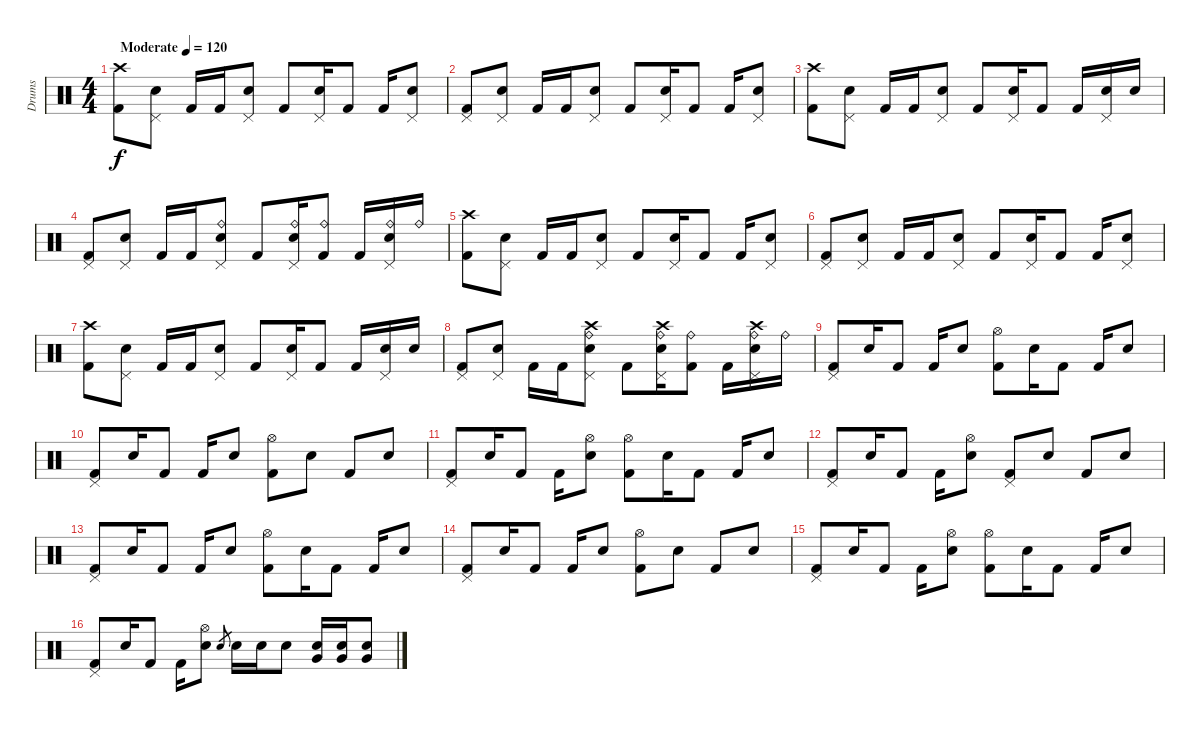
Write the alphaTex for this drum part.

\track ("Drums" "Drums") {instrument percussion}
\staff {score}
\articulation defaults
\ts (4 4)
\tempo (120 "Moderate")
\clef neutral
\ks c
("Crash high (hit)" "Kick (hit) 2").8{dy f} ("Pedal Hi-Hat (hit)" "Electric Snare (hit)").8 "Kick (hit) 2".16 "Kick (hit) 2".16 ("Pedal Hi-Hat (hit)" "Electric Snare (hit)").8 "Kick (hit) 2".8 ("Pedal Hi-Hat (hit)" "Electric Snare (hit)").16 "Kick (hit) 2".8 "Kick (hit) 2".16 ("Pedal Hi-Hat (hit)" "Electric Snare (hit)").8 |
("Pedal Hi-Hat (hit)" "Kick (hit) 2").8 ("Pedal Hi-Hat (hit)" "Electric Snare (hit)").8 "Kick (hit) 2".16 "Kick (hit) 2".16 ("Pedal Hi-Hat (hit)" "Electric Snare (hit)").8 "Kick (hit) 2".8 ("Pedal Hi-Hat (hit)" "Electric Snare (hit)").16 "Kick (hit) 2".8 "Kick (hit) 2".16 ("Pedal Hi-Hat (hit)" "Electric Snare (hit)").8 |
("Crash high (hit)" "Kick (hit) 2").8 ("Pedal Hi-Hat (hit)" "Electric Snare (hit)").8 "Kick (hit) 2".16 "Kick (hit) 2".16 ("Pedal Hi-Hat (hit)" "Electric Snare (hit)").8 "Kick (hit) 2".8 ("Pedal Hi-Hat (hit)" "Electric Snare (hit)").16 "Kick (hit) 2".8 "Kick (hit) 2".16 ("Pedal Hi-Hat (hit)" "Electric Snare (hit)").16 "Electric Snare (hit)".16 |
("Pedal Hi-Hat (hit)" "Kick (hit) 2").8 ("Pedal Hi-Hat (hit)" "Electric Snare (hit)").8 "Kick (hit) 2".16 "Kick (hit) 2".16 ("Pedal Hi-Hat (hit)" "Electric Snare (hit)" "Ride (bell)").8 "Kick (hit) 2".8 ("Pedal Hi-Hat (hit)" "Electric Snare (hit)" "Ride (bell)").16 ("Ride (bell)" "Kick (hit) 2").8 "Kick (hit) 2".16 ("Pedal Hi-Hat (hit)" "Electric Snare (hit)" "Ride (bell)").16 "Ride (bell)".16 |
("Crash high (hit)" "Kick (hit) 2").8 ("Pedal Hi-Hat (hit)" "Electric Snare (hit)").8 "Kick (hit) 2".16 "Kick (hit) 2".16 ("Pedal Hi-Hat (hit)" "Electric Snare (hit)").8 "Kick (hit) 2".8 ("Pedal Hi-Hat (hit)" "Electric Snare (hit)").16 "Kick (hit) 2".8 "Kick (hit) 2".16 ("Pedal Hi-Hat (hit)" "Electric Snare (hit)").8 |
("Pedal Hi-Hat (hit)" "Kick (hit) 2").8 ("Pedal Hi-Hat (hit)" "Electric Snare (hit)").8 "Kick (hit) 2".16 "Kick (hit) 2".16 ("Pedal Hi-Hat (hit)" "Electric Snare (hit)").8 "Kick (hit) 2".8 ("Pedal Hi-Hat (hit)" "Electric Snare (hit)").16 "Kick (hit) 2".8 "Kick (hit) 2".16 ("Pedal Hi-Hat (hit)" "Electric Snare (hit)").8 |
("Crash high (hit)" "Kick (hit) 2").8 ("Pedal Hi-Hat (hit)" "Electric Snare (hit)").8 "Kick (hit) 2".16 "Kick (hit) 2".16 ("Pedal Hi-Hat (hit)" "Electric Snare (hit)").8 "Kick (hit) 2".8 ("Pedal Hi-Hat (hit)" "Electric Snare (hit)").16 "Kick (hit) 2".8 "Kick (hit) 2".16 ("Pedal Hi-Hat (hit)" "Electric Snare (hit)").16 "Electric Snare (hit)".16 |
("Pedal Hi-Hat (hit)" "Kick (hit) 2").8 ("Pedal Hi-Hat (hit)" "Electric Snare (hit)").8 "Kick (hit) 2".16 "Kick (hit) 2".16 ("Pedal Hi-Hat (hit)" "Electric Snare (hit)" "Ride (bell)" "Crash high (hit)").8 "Kick (hit) 2".8 ("Pedal Hi-Hat (hit)" "Electric Snare (hit)" "Ride (bell)" "Crash high (hit)").16 ("Ride (bell)" "Kick (hit) 2").8 "Kick (hit) 2".16 ("Pedal Hi-Hat (hit)" "Electric Snare (hit)" "Ride (bell)" "Crash high (hit)").16 "Ride (bell)".16 |
("Pedal Hi-Hat (hit)" "Kick (hit) 2").8 "Electric Snare (hit)".16 "Kick (hit) 2".8 "Kick (hit) 2".16 "Electric Snare (hit)".8 ("Hi-Hat (open)" "Kick (hit) 2").8 "Electric Snare (hit)".16 "Kick (hit) 2".8 "Kick (hit) 2".16 "Electric Snare (hit)".8 |
("Pedal Hi-Hat (hit)" "Kick (hit) 2").8 "Electric Snare (hit)".16 "Kick (hit) 2".8 "Kick (hit) 2".16 "Electric Snare (hit)".8 ("Hi-Hat (open)" "Kick (hit) 2").8 "Electric Snare (hit)".8 "Kick (hit) 2".8 "Electric Snare (hit)".8 |
("Pedal Hi-Hat (hit)" "Kick (hit) 2").8 "Electric Snare (hit)".16 "Kick (hit) 2".8 "Kick (hit) 2".16 ("Hi-Hat (open)" "Electric Snare (hit)").8 ("Hi-Hat (open)" "Kick (hit) 2").8 "Electric Snare (hit)".16 "Kick (hit) 2".8 "Kick (hit) 2".16 "Electric Snare (hit)".8 |
("Pedal Hi-Hat (hit)" "Kick (hit) 2").8 "Electric Snare (hit)".16 "Kick (hit) 2".8 "Kick (hit) 2".16 ("Hi-Hat (open)" "Electric Snare (hit)").8 ("Pedal Hi-Hat (hit)" "Kick (hit) 2").8 "Electric Snare (hit)".8 "Kick (hit) 2".8 "Electric Snare (hit)".8 |
("Pedal Hi-Hat (hit)" "Kick (hit) 2").8 "Electric Snare (hit)".16 "Kick (hit) 2".8 "Kick (hit) 2".16 "Electric Snare (hit)".8 ("Hi-Hat (open)" "Kick (hit) 2").8 "Electric Snare (hit)".16 "Kick (hit) 2".8 "Kick (hit) 2".16 "Electric Snare (hit)".8 |
("Pedal Hi-Hat (hit)" "Kick (hit) 2").8 "Electric Snare (hit)".16 "Kick (hit) 2".8 "Kick (hit) 2".16 "Electric Snare (hit)".8 ("Hi-Hat (open)" "Kick (hit) 2").8 "Electric Snare (hit)".8 "Kick (hit) 2".8 "Electric Snare (hit)".8 |
("Pedal Hi-Hat (hit)" "Kick (hit) 2").8 "Electric Snare (hit)".16 "Kick (hit) 2".8 "Kick (hit) 2".16 ("Hi-Hat (open)" "Electric Snare (hit)").8 ("Hi-Hat (open)" "Kick (hit) 2").8 "Electric Snare (hit)".16 "Kick (hit) 2".8 "Kick (hit) 2".16 "Electric Snare (hit)".8 |
("Pedal Hi-Hat (hit)" "Kick (hit) 2").8 "Electric Snare (hit)".16 "Kick (hit) 2".8 "Kick (hit) 2".16 ("Hi-Hat (open)" "Electric Snare (hit)").8 "Electric Snare (hit)".8{gr} "Electric Snare (hit)".16 "Electric Snare (hit)".16 "Electric Snare (hit)".8 ("Electric Snare (hit)" "Very Low Tom (hit)").16 ("Electric Snare (hit)" "Very Low Tom (hit)").16 ("Electric Snare (hit)" "Very Low Tom (hit)").8
